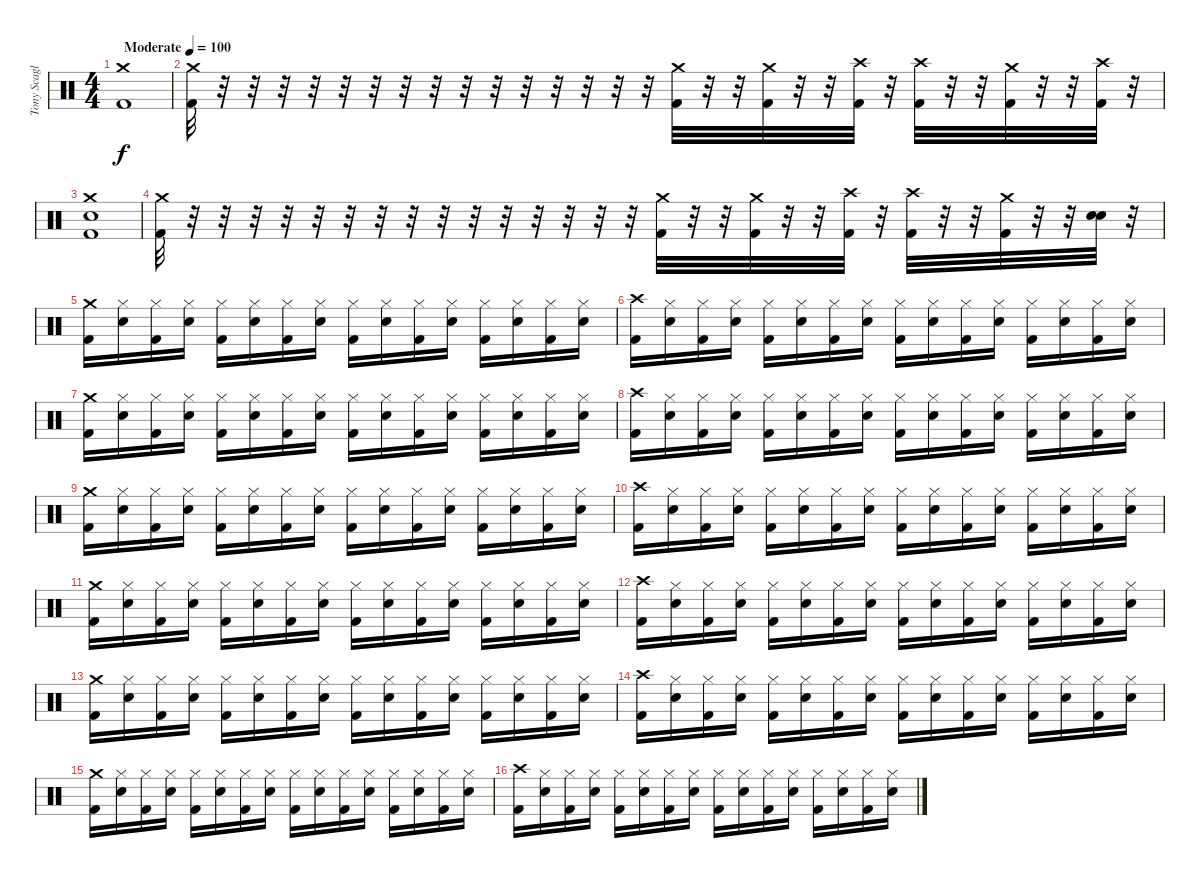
\track ("Tony Scaglione" "Tony Scagl") {instrument percussion}
\staff {score}
\articulation defaults
\ts (4 4)
\tempo (100 "Moderate")
\clef neutral
\ks c
("Crash medium (hit)" "Kick (hit) 2").1{dy f} |
("Crash medium (hit)" "Kick (hit) 2").32 r.32 r.32 r.32 r.32 r.32 r.32 r.32 r.32 r.32 r.32 r.32 r.32 r.32 r.32 r.32 ("Crash medium (hit)" "Kick (hit) 2").32 r.32 r.32 ("Crash medium (hit)" "Kick (hit) 2").32 r.32 r.32 ("Crash high (hit)" "Kick (hit) 2").32 r.32 ("Crash high (hit)" "Kick (hit) 2").32 r.32 r.32 ("Crash medium (hit)" "Kick (hit) 2").32 r.32 r.32 ("Crash high (hit)" "Kick (hit) 2").32 r.32 |
("Snare (hit) 2" "Crash medium (hit)" "Kick (hit) 2").1 |
("Crash medium (hit)" "Kick (hit) 2").32 r.32 r.32 r.32 r.32 r.32 r.32 r.32 r.32 r.32 r.32 r.32 r.32 r.32 r.32 r.32 ("Crash medium (hit)" "Kick (hit) 2").32 r.32 r.32 ("Crash medium (hit)" "Kick (hit) 2").32 r.32 r.32 ("Crash high (hit)" "Kick (hit) 2").32 r.32 ("Crash high (hit)" "Kick (hit) 2").32 r.32 r.32 ("Crash medium (hit)" "Kick (hit) 2").32 r.32 r.32 ("Electric Snare (hit)" "Snare (hit) 2").32 r.32 |
("Crash medium (hit)" "Kick (hit) 2").16 ("Hi-Hat (closed)" "Snare (hit) 2").16 ("Hi-Hat (closed)" "Kick (hit) 2").16 ("Hi-Hat (closed)" "Snare (hit) 2").16 ("Hi-Hat (closed)" "Kick (hit) 2").16 ("Hi-Hat (closed)" "Snare (hit) 2").16 ("Hi-Hat (closed)" "Kick (hit) 2").16 ("Hi-Hat (closed)" "Snare (hit) 2").16 ("Hi-Hat (closed)" "Kick (hit) 2").16 ("Hi-Hat (closed)" "Snare (hit) 2").16 ("Hi-Hat (closed)" "Kick (hit) 2").16 ("Hi-Hat (closed)" "Snare (hit) 2").16 ("Hi-Hat (closed)" "Kick (hit) 2").16 ("Hi-Hat (closed)" "Snare (hit) 2").16 ("Hi-Hat (closed)" "Kick (hit) 2").16 ("Hi-Hat (closed)" "Snare (hit) 2").16 |
("Crash high (hit)" "Kick (hit) 2").16 ("Hi-Hat (closed)" "Snare (hit) 2").16 ("Hi-Hat (closed)" "Kick (hit) 2").16 ("Hi-Hat (closed)" "Snare (hit) 2").16 ("Hi-Hat (closed)" "Kick (hit) 2").16 ("Hi-Hat (closed)" "Snare (hit) 2").16 ("Hi-Hat (closed)" "Kick (hit) 2").16 ("Hi-Hat (closed)" "Snare (hit) 2").16 ("Hi-Hat (closed)" "Kick (hit) 2").16 ("Hi-Hat (closed)" "Snare (hit) 2").16 ("Hi-Hat (closed)" "Kick (hit) 2").16 ("Hi-Hat (closed)" "Snare (hit) 2").16 ("Hi-Hat (closed)" "Kick (hit) 2").16 ("Hi-Hat (closed)" "Snare (hit) 2").16 ("Hi-Hat (closed)" "Kick (hit) 2").16 ("Hi-Hat (closed)" "Snare (hit) 2").16 |
("Crash medium (hit)" "Kick (hit) 2").16 ("Hi-Hat (closed)" "Snare (hit) 2").16 ("Hi-Hat (closed)" "Kick (hit) 2").16 ("Hi-Hat (closed)" "Snare (hit) 2").16 ("Hi-Hat (closed)" "Kick (hit) 2").16 ("Hi-Hat (closed)" "Snare (hit) 2").16 ("Hi-Hat (closed)" "Kick (hit) 2").16 ("Hi-Hat (closed)" "Snare (hit) 2").16 ("Hi-Hat (closed)" "Kick (hit) 2").16 ("Hi-Hat (closed)" "Snare (hit) 2").16 ("Hi-Hat (closed)" "Kick (hit) 2").16 ("Hi-Hat (closed)" "Snare (hit) 2").16 ("Hi-Hat (closed)" "Kick (hit) 2").16 ("Hi-Hat (closed)" "Snare (hit) 2").16 ("Hi-Hat (closed)" "Kick (hit) 2").16 ("Hi-Hat (closed)" "Snare (hit) 2").16 |
("Crash high (hit)" "Kick (hit) 2").16 ("Hi-Hat (closed)" "Snare (hit) 2").16 ("Hi-Hat (closed)" "Kick (hit) 2").16 ("Hi-Hat (closed)" "Snare (hit) 2").16 ("Hi-Hat (closed)" "Kick (hit) 2").16 ("Hi-Hat (closed)" "Snare (hit) 2").16 ("Hi-Hat (closed)" "Kick (hit) 2").16 ("Hi-Hat (closed)" "Snare (hit) 2").16 ("Hi-Hat (closed)" "Kick (hit) 2").16 ("Hi-Hat (closed)" "Snare (hit) 2").16 ("Hi-Hat (closed)" "Kick (hit) 2").16 ("Hi-Hat (closed)" "Snare (hit) 2").16 ("Hi-Hat (closed)" "Kick (hit) 2").16 ("Hi-Hat (closed)" "Snare (hit) 2").16 ("Hi-Hat (closed)" "Kick (hit) 2").16 ("Hi-Hat (closed)" "Snare (hit) 2").16 |
("Crash medium (hit)" "Kick (hit) 2").16 ("Hi-Hat (closed)" "Snare (hit) 2").16 ("Hi-Hat (closed)" "Kick (hit) 2").16 ("Hi-Hat (closed)" "Snare (hit) 2").16 ("Hi-Hat (closed)" "Kick (hit) 2").16 ("Hi-Hat (closed)" "Snare (hit) 2").16 ("Hi-Hat (closed)" "Kick (hit) 2").16 ("Hi-Hat (closed)" "Snare (hit) 2").16 ("Hi-Hat (closed)" "Kick (hit) 2").16 ("Hi-Hat (closed)" "Snare (hit) 2").16 ("Hi-Hat (closed)" "Kick (hit) 2").16 ("Hi-Hat (closed)" "Snare (hit) 2").16 ("Hi-Hat (closed)" "Kick (hit) 2").16 ("Hi-Hat (closed)" "Snare (hit) 2").16 ("Hi-Hat (closed)" "Kick (hit) 2").16 ("Hi-Hat (closed)" "Snare (hit) 2").16 |
("Crash high (hit)" "Kick (hit) 2").16 ("Hi-Hat (closed)" "Snare (hit) 2").16 ("Hi-Hat (closed)" "Kick (hit) 2").16 ("Hi-Hat (closed)" "Snare (hit) 2").16 ("Hi-Hat (closed)" "Kick (hit) 2").16 ("Hi-Hat (closed)" "Snare (hit) 2").16 ("Hi-Hat (closed)" "Kick (hit) 2").16 ("Hi-Hat (closed)" "Snare (hit) 2").16 ("Hi-Hat (closed)" "Kick (hit) 2").16 ("Hi-Hat (closed)" "Snare (hit) 2").16 ("Hi-Hat (closed)" "Kick (hit) 2").16 ("Hi-Hat (closed)" "Snare (hit) 2").16 ("Hi-Hat (closed)" "Kick (hit) 2").16 ("Hi-Hat (closed)" "Snare (hit) 2").16 ("Hi-Hat (closed)" "Kick (hit) 2").16 ("Hi-Hat (closed)" "Snare (hit) 2").16 |
("Crash medium (hit)" "Kick (hit) 2").16 ("Hi-Hat (closed)" "Snare (hit) 2").16 ("Hi-Hat (closed)" "Kick (hit) 2").16 ("Hi-Hat (closed)" "Snare (hit) 2").16 ("Hi-Hat (closed)" "Kick (hit) 2").16 ("Hi-Hat (closed)" "Snare (hit) 2").16 ("Hi-Hat (closed)" "Kick (hit) 2").16 ("Hi-Hat (closed)" "Snare (hit) 2").16 ("Hi-Hat (closed)" "Kick (hit) 2").16 ("Hi-Hat (closed)" "Snare (hit) 2").16 ("Hi-Hat (closed)" "Kick (hit) 2").16 ("Hi-Hat (closed)" "Snare (hit) 2").16 ("Hi-Hat (closed)" "Kick (hit) 2").16 ("Hi-Hat (closed)" "Snare (hit) 2").16 ("Hi-Hat (closed)" "Kick (hit) 2").16 ("Hi-Hat (closed)" "Snare (hit) 2").16 |
("Crash high (hit)" "Kick (hit) 2").16 ("Hi-Hat (closed)" "Snare (hit) 2").16 ("Hi-Hat (closed)" "Kick (hit) 2").16 ("Hi-Hat (closed)" "Snare (hit) 2").16 ("Hi-Hat (closed)" "Kick (hit) 2").16 ("Hi-Hat (closed)" "Snare (hit) 2").16 ("Hi-Hat (closed)" "Kick (hit) 2").16 ("Hi-Hat (closed)" "Snare (hit) 2").16 ("Hi-Hat (closed)" "Kick (hit) 2").16 ("Hi-Hat (closed)" "Snare (hit) 2").16 ("Hi-Hat (closed)" "Kick (hit) 2").16 ("Hi-Hat (closed)" "Snare (hit) 2").16 ("Hi-Hat (closed)" "Kick (hit) 2").16 ("Hi-Hat (closed)" "Snare (hit) 2").16 ("Hi-Hat (closed)" "Kick (hit) 2").16 ("Hi-Hat (closed)" "Snare (hit) 2").16 |
("Crash medium (hit)" "Kick (hit) 2").16 ("Hi-Hat (closed)" "Snare (hit) 2").16 ("Hi-Hat (closed)" "Kick (hit) 2").16 ("Hi-Hat (closed)" "Snare (hit) 2").16 ("Hi-Hat (closed)" "Kick (hit) 2").16 ("Hi-Hat (closed)" "Snare (hit) 2").16 ("Hi-Hat (closed)" "Kick (hit) 2").16 ("Hi-Hat (closed)" "Snare (hit) 2").16 ("Hi-Hat (closed)" "Kick (hit) 2").16 ("Hi-Hat (closed)" "Snare (hit) 2").16 ("Hi-Hat (closed)" "Kick (hit) 2").16 ("Hi-Hat (closed)" "Snare (hit) 2").16 ("Hi-Hat (closed)" "Kick (hit) 2").16 ("Hi-Hat (closed)" "Snare (hit) 2").16 ("Hi-Hat (closed)" "Kick (hit) 2").16 ("Hi-Hat (closed)" "Snare (hit) 2").16 |
("Crash high (hit)" "Kick (hit) 2").16 ("Hi-Hat (closed)" "Snare (hit) 2").16 ("Hi-Hat (closed)" "Kick (hit) 2").16 ("Hi-Hat (closed)" "Snare (hit) 2").16 ("Hi-Hat (closed)" "Kick (hit) 2").16 ("Hi-Hat (closed)" "Snare (hit) 2").16 ("Hi-Hat (closed)" "Kick (hit) 2").16 ("Hi-Hat (closed)" "Snare (hit) 2").16 ("Hi-Hat (closed)" "Kick (hit) 2").16 ("Hi-Hat (closed)" "Snare (hit) 2").16 ("Hi-Hat (closed)" "Kick (hit) 2").16 ("Hi-Hat (closed)" "Snare (hit) 2").16 ("Hi-Hat (closed)" "Kick (hit) 2").16 ("Hi-Hat (closed)" "Snare (hit) 2").16 ("Hi-Hat (closed)" "Kick (hit) 2").16 ("Hi-Hat (closed)" "Snare (hit) 2").16 |
("Crash medium (hit)" "Kick (hit) 2").16 ("Hi-Hat (closed)" "Snare (hit) 2").16 ("Hi-Hat (closed)" "Kick (hit) 2").16 ("Hi-Hat (closed)" "Snare (hit) 2").16 ("Hi-Hat (closed)" "Kick (hit) 2").16 ("Hi-Hat (closed)" "Snare (hit) 2").16 ("Hi-Hat (closed)" "Kick (hit) 2").16 ("Hi-Hat (closed)" "Snare (hit) 2").16 ("Hi-Hat (closed)" "Kick (hit) 2").16 ("Hi-Hat (closed)" "Snare (hit) 2").16 ("Hi-Hat (closed)" "Kick (hit) 2").16 ("Hi-Hat (closed)" "Snare (hit) 2").16 ("Hi-Hat (closed)" "Kick (hit) 2").16 ("Hi-Hat (closed)" "Snare (hit) 2").16 ("Hi-Hat (closed)" "Kick (hit) 2").16 ("Hi-Hat (closed)" "Snare (hit) 2").16 |
("Crash high (hit)" "Kick (hit) 2").16 ("Hi-Hat (closed)" "Snare (hit) 2").16 ("Hi-Hat (closed)" "Kick (hit) 2").16 ("Hi-Hat (closed)" "Snare (hit) 2").16 ("Hi-Hat (closed)" "Kick (hit) 2").16 ("Hi-Hat (closed)" "Snare (hit) 2").16 ("Hi-Hat (closed)" "Kick (hit) 2").16 ("Hi-Hat (closed)" "Snare (hit) 2").16 ("Hi-Hat (closed)" "Kick (hit) 2").16 ("Hi-Hat (closed)" "Snare (hit) 2").16 ("Hi-Hat (closed)" "Kick (hit) 2").16 ("Hi-Hat (closed)" "Snare (hit) 2").16 ("Hi-Hat (closed)" "Kick (hit) 2").16 ("Hi-Hat (closed)" "Snare (hit) 2").16 ("Hi-Hat (closed)" "Kick (hit) 2").16 ("Hi-Hat (closed)" "Snare (hit) 2").16
